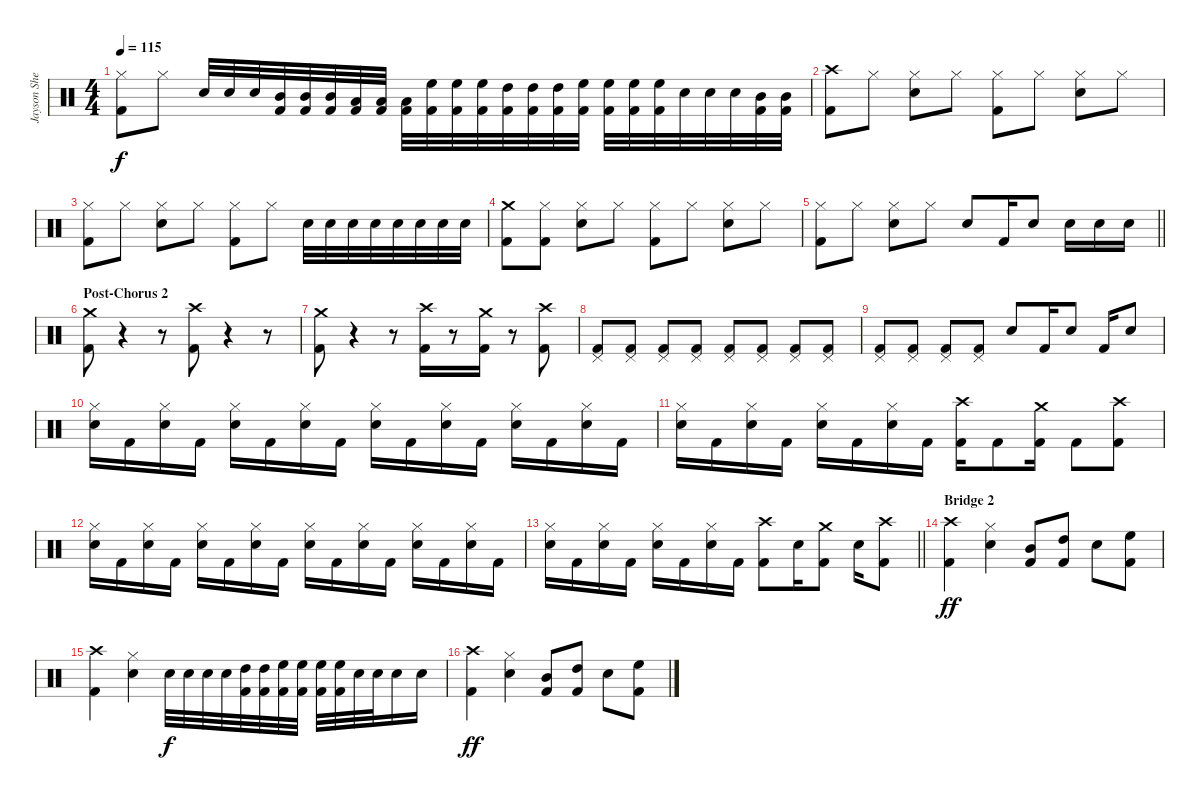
\track ("Jayson Sherlock" "Jayson She") {instrument percussion}
\staff {score}
\articulation defaults
\ts (4 4)
\tempo 115
\clef neutral
\ks c
("Kick (hit) 2" "Hi-Hat (closed)").8{dy f} "Hi-Hat (closed)".8 "Snare (hit) 2".32 "Snare (hit) 2".32 "Snare (hit) 2".32 ("Kick (hit) 2" "Mid Tom (hit)").32 ("Kick (hit) 2" "Mid Tom (hit)").32 ("Kick (hit) 2" "Mid Tom (hit)").32 ("Kick (hit) 2" "Low Tom (hit)").32 ("Kick (hit) 2" "Low Tom (hit)").32 ("Kick (hit) 2" "Low Tom (hit)").32 ("Kick (hit) 2" "High Floor Tom (hit)").32 ("Kick (hit) 2" "High Floor Tom (hit)").32 ("Kick (hit) 2" "High Floor Tom (hit)").32 ("Kick (hit) 2" "High Tom (hit)").32 ("Kick (hit) 2" "High Tom (hit)").32 ("Kick (hit) 2" "High Tom (hit)").32 ("Kick (hit) 2" "High Floor Tom (hit)").32 ("Kick (hit) 2" "High Floor Tom (hit)").32 ("Kick (hit) 2" "High Floor Tom (hit)").32 ("Kick (hit) 2" "High Floor Tom (hit)").32 "Snare (hit) 2".32 "Snare (hit) 2".32 "Snare (hit) 2".32 ("Kick (hit) 2" "Mid Tom (hit)").32 ("Kick (hit) 2" "Mid Tom (hit)").32 |
("Kick (hit) 2" "Crash high (hit)").8 "Hi-Hat (closed)".8 ("Hi-Hat (closed)" "Snare (hit) 2").8 "Hi-Hat (closed)".8 ("Kick (hit) 2" "Hi-Hat (closed)").8 "Hi-Hat (closed)".8 ("Hi-Hat (closed)" "Snare (hit) 2").8 "Hi-Hat (closed)".8 |
("Kick (hit) 2" "Hi-Hat (closed)").8 "Hi-Hat (closed)".8 ("Hi-Hat (closed)" "Snare (hit) 2").8 "Hi-Hat (closed)".8 ("Kick (hit) 2" "Hi-Hat (closed)").8 "Hi-Hat (closed)".8 "Snare (hit) 2".32 "Snare (hit) 2".32 "Snare (hit) 2".32 "Snare (hit) 2".32 "Snare (hit) 2".32 "Snare (hit) 2".32 "Snare (hit) 2".32 "Snare (hit) 2".32 |
("Kick (hit) 2" "Crash medium (hit)").8 ("Kick (hit) 2" "Hi-Hat (closed)").8 ("Hi-Hat (closed)" "Snare (hit) 2").8 "Hi-Hat (closed)".8 ("Kick (hit) 2" "Hi-Hat (closed)").8 "Hi-Hat (closed)".8 ("Hi-Hat (closed)" "Snare (hit) 2").8 "Hi-Hat (closed)".8 |
\barLineRight lightlight
("Kick (hit) 2" "Hi-Hat (closed)").8 "Hi-Hat (closed)".8 ("Hi-Hat (closed)" "Snare (hit) 2").8 "Hi-Hat (closed)".8 "Snare (hit) 2".8 "Kick (hit) 2".16 "Snare (hit) 2".8 "Snare (hit) 2".16 "Snare (hit) 2".16 "Snare (hit) 2".16 |
\section ("" "Post-Chorus 2")
("Kick (hit) 2" "Crash medium (hit)").8 r.4 r.8 ("Kick (hit) 2" "Crash high (hit)").8 r.4 r.8 |
("Kick (hit) 2" "Crash medium (hit)").8 r.4 r.8 ("Kick (hit) 2" "Crash high (hit)").16 r.8 ("Kick (hit) 2" "Crash medium (hit)").16 r.8 ("Kick (hit) 2" "Crash high (hit)").8 |
("Kick (hit) 2" "Pedal Hi-Hat (hit)").8 ("Kick (hit) 2" "Pedal Hi-Hat (hit)").8 ("Kick (hit) 2" "Pedal Hi-Hat (hit)").8 ("Kick (hit) 2" "Pedal Hi-Hat (hit)").8 ("Kick (hit) 2" "Pedal Hi-Hat (hit)").8 ("Kick (hit) 2" "Pedal Hi-Hat (hit)").8 ("Kick (hit) 2" "Pedal Hi-Hat (hit)").8 ("Kick (hit) 2" "Pedal Hi-Hat (hit)").8 |
("Kick (hit) 2" "Pedal Hi-Hat (hit)").8 ("Kick (hit) 2" "Pedal Hi-Hat (hit)").8 ("Kick (hit) 2" "Pedal Hi-Hat (hit)").8 ("Kick (hit) 2" "Pedal Hi-Hat (hit)").8 "Snare (hit) 2".8 "Kick (hit) 2".16 "Snare (hit) 2".8 "Kick (hit) 2".16 "Snare (hit) 2".8 |
("Hi-Hat (closed)" "Snare (hit) 2").16 "Kick (hit) 2".16 ("Hi-Hat (closed)" "Snare (hit) 2").16 "Kick (hit) 2".16 ("Hi-Hat (closed)" "Snare (hit) 2").16 "Kick (hit) 2".16 ("Hi-Hat (closed)" "Snare (hit) 2").16 "Kick (hit) 2".16 ("Hi-Hat (closed)" "Snare (hit) 2").16 "Kick (hit) 2".16 ("Hi-Hat (closed)" "Snare (hit) 2").16 "Kick (hit) 2".16 ("Hi-Hat (closed)" "Snare (hit) 2").16 "Kick (hit) 2".16 ("Hi-Hat (closed)" "Snare (hit) 2").16 "Kick (hit) 2".16 |
("Hi-Hat (closed)" "Snare (hit) 2").16 "Kick (hit) 2".16 ("Hi-Hat (closed)" "Snare (hit) 2").16 "Kick (hit) 2".16 ("Hi-Hat (closed)" "Snare (hit) 2").16 "Kick (hit) 2".16 ("Hi-Hat (closed)" "Snare (hit) 2").16 "Kick (hit) 2".16 ("Kick (hit) 2" "Crash high (hit)").16 "Kick (hit) 2".8 ("Kick (hit) 2" "Crash medium (hit)").16 "Kick (hit) 2".8 ("Kick (hit) 2" "Crash high (hit)").8 |
("Hi-Hat (closed)" "Snare (hit) 2").16 "Kick (hit) 2".16 ("Hi-Hat (closed)" "Snare (hit) 2").16 "Kick (hit) 2".16 ("Hi-Hat (closed)" "Snare (hit) 2").16 "Kick (hit) 2".16 ("Hi-Hat (closed)" "Snare (hit) 2").16 "Kick (hit) 2".16 ("Hi-Hat (closed)" "Snare (hit) 2").16 "Kick (hit) 2".16 ("Hi-Hat (closed)" "Snare (hit) 2").16 "Kick (hit) 2".16 ("Hi-Hat (closed)" "Snare (hit) 2").16 "Kick (hit) 2".16 ("Hi-Hat (closed)" "Snare (hit) 2").16 "Kick (hit) 2".16 |
\barLineRight lightlight
("Hi-Hat (closed)" "Snare (hit) 2").16 "Kick (hit) 2".16 ("Hi-Hat (closed)" "Snare (hit) 2").16 "Kick (hit) 2".16 ("Hi-Hat (closed)" "Snare (hit) 2").16 "Kick (hit) 2".16 ("Hi-Hat (closed)" "Snare (hit) 2").16 "Kick (hit) 2".16 ("Kick (hit) 2" "Crash high (hit)").8 "Snare (hit) 2".16 ("Kick (hit) 2" "Crash medium (hit)").8 "Snare (hit) 2".16 ("Kick (hit) 2" "Crash high (hit)").8 |
\section ("" "Bridge 2")
("Kick (hit) 2" "Crash high (hit)").4{dy ff} ("Hi-Hat (closed)" "Snare (hit) 2").4 ("Kick (hit) 2" "Mid Tom (hit)").8 ("Kick (hit) 2" "High Tom (hit)").8 "Snare (hit) 2".8 ("Kick (hit) 2" "High Floor Tom (hit)").8 |
("Kick (hit) 2" "Crash high (hit)").4 ("Hi-Hat (closed)" "Snare (hit) 2").4 "Snare (hit) 2".32{dy f} "Snare (hit) 2".32 "Snare (hit) 2".32 "Snare (hit) 2".32 ("Kick (hit) 2" "High Tom (hit)").32 ("Kick (hit) 2" "High Tom (hit)").32 ("Kick (hit) 2" "High Floor Tom (hit)").32 ("Kick (hit) 2" "High Floor Tom (hit)").32 ("Kick (hit) 2" "High Floor Tom (hit)").32 ("Kick (hit) 2" "High Floor Tom (hit)").32 "Snare (hit) 2".32 "Snare (hit) 2".32 "Snare (hit) 2".16 "Snare (hit) 2".16 |
("Kick (hit) 2" "Crash high (hit)").4{dy ff} ("Hi-Hat (closed)" "Snare (hit) 2").4 ("Kick (hit) 2" "Mid Tom (hit)").8 ("Kick (hit) 2" "High Tom (hit)").8 "Snare (hit) 2".8 ("Kick (hit) 2" "High Floor Tom (hit)").8
